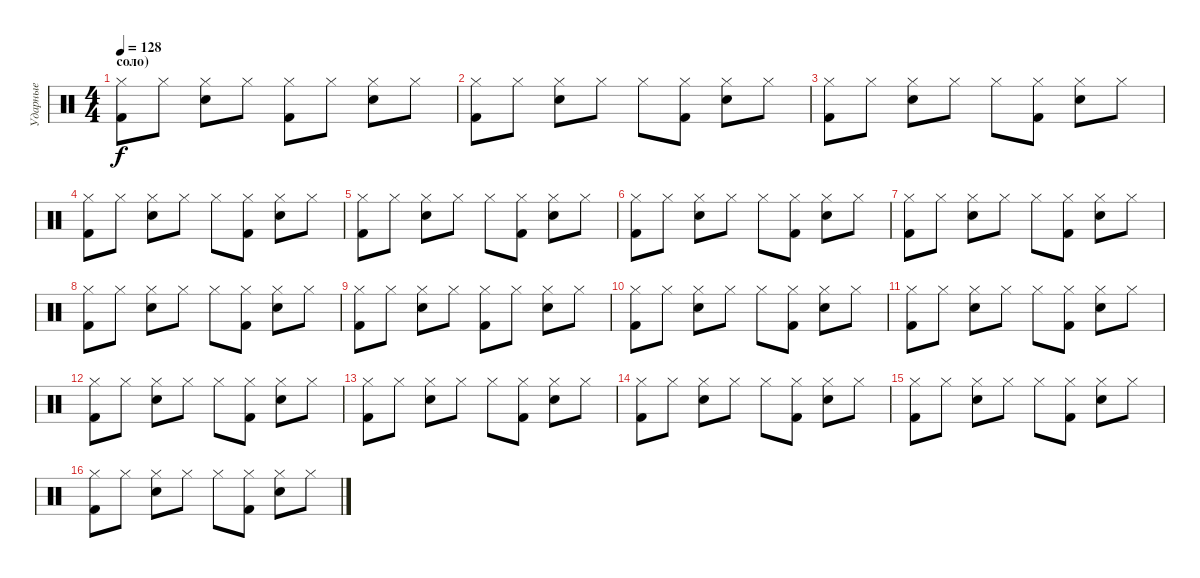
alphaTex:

\track ("Ударные" "Ударные") {instrument percussion}
\staff {score}
\articulation defaults
\ts (4 4)
\section ("" "соло)")
\tempo 128
\clef neutral
\ks c
("Hi-Hat (closed)" "Kick (hit) 2").8{dy f} "Hi-Hat (closed)".8 ("Hi-Hat (closed)" "Snare (hit) 2").8 "Hi-Hat (closed)".8 ("Hi-Hat (closed)" "Kick (hit) 2").8 "Hi-Hat (closed)".8 ("Hi-Hat (closed)" "Snare (hit) 2").8 "Hi-Hat (closed)".8 |
("Hi-Hat (closed)" "Kick (hit) 2").8 "Hi-Hat (closed)".8 ("Hi-Hat (closed)" "Snare (hit) 2").8 "Hi-Hat (closed)".8 "Hi-Hat (closed)".8 ("Hi-Hat (closed)" "Kick (hit) 2").8 ("Hi-Hat (closed)" "Snare (hit) 2").8 "Hi-Hat (closed)".8 |
("Hi-Hat (closed)" "Kick (hit) 2").8 "Hi-Hat (closed)".8 ("Hi-Hat (closed)" "Snare (hit) 2").8 "Hi-Hat (closed)".8 "Hi-Hat (closed)".8 ("Hi-Hat (closed)" "Kick (hit) 2").8 ("Hi-Hat (closed)" "Snare (hit) 2").8 "Hi-Hat (closed)".8 |
("Hi-Hat (closed)" "Kick (hit) 2").8 "Hi-Hat (closed)".8 ("Hi-Hat (closed)" "Snare (hit) 2").8 "Hi-Hat (closed)".8 "Hi-Hat (closed)".8 ("Hi-Hat (closed)" "Kick (hit) 2").8 ("Hi-Hat (closed)" "Snare (hit) 2").8 "Hi-Hat (closed)".8 |
("Hi-Hat (closed)" "Kick (hit) 2").8 "Hi-Hat (closed)".8 ("Hi-Hat (closed)" "Snare (hit) 2").8 "Hi-Hat (closed)".8 "Hi-Hat (closed)".8 ("Hi-Hat (closed)" "Kick (hit) 2").8 ("Hi-Hat (closed)" "Snare (hit) 2").8 "Hi-Hat (closed)".8 |
("Hi-Hat (closed)" "Kick (hit) 2").8 "Hi-Hat (closed)".8 ("Hi-Hat (closed)" "Snare (hit) 2").8 "Hi-Hat (closed)".8 "Hi-Hat (closed)".8 ("Hi-Hat (closed)" "Kick (hit) 2").8 ("Hi-Hat (closed)" "Snare (hit) 2").8 "Hi-Hat (closed)".8 |
("Hi-Hat (closed)" "Kick (hit) 2").8 "Hi-Hat (closed)".8 ("Hi-Hat (closed)" "Snare (hit) 2").8 "Hi-Hat (closed)".8 "Hi-Hat (closed)".8 ("Hi-Hat (closed)" "Kick (hit) 2").8 ("Hi-Hat (closed)" "Snare (hit) 2").8 "Hi-Hat (closed)".8 |
("Hi-Hat (closed)" "Kick (hit) 2").8 "Hi-Hat (closed)".8 ("Hi-Hat (closed)" "Snare (hit) 2").8 "Hi-Hat (closed)".8 "Hi-Hat (closed)".8 ("Hi-Hat (closed)" "Kick (hit) 2").8 ("Hi-Hat (closed)" "Snare (hit) 2").8 "Hi-Hat (closed)".8 |
("Hi-Hat (closed)" "Kick (hit) 2").8 "Hi-Hat (closed)".8 ("Hi-Hat (closed)" "Snare (hit) 2").8 "Hi-Hat (closed)".8 ("Hi-Hat (closed)" "Kick (hit) 2").8 "Hi-Hat (closed)".8 ("Hi-Hat (closed)" "Snare (hit) 2").8 "Hi-Hat (closed)".8 |
("Hi-Hat (closed)" "Kick (hit) 2").8 "Hi-Hat (closed)".8 ("Hi-Hat (closed)" "Snare (hit) 2").8 "Hi-Hat (closed)".8 "Hi-Hat (closed)".8 ("Hi-Hat (closed)" "Kick (hit) 2").8 ("Hi-Hat (closed)" "Snare (hit) 2").8 "Hi-Hat (closed)".8 |
("Hi-Hat (closed)" "Kick (hit) 2").8 "Hi-Hat (closed)".8 ("Hi-Hat (closed)" "Snare (hit) 2").8 "Hi-Hat (closed)".8 "Hi-Hat (closed)".8 ("Hi-Hat (closed)" "Kick (hit) 2").8 ("Hi-Hat (closed)" "Snare (hit) 2").8 "Hi-Hat (closed)".8 |
("Hi-Hat (closed)" "Kick (hit) 2").8 "Hi-Hat (closed)".8 ("Hi-Hat (closed)" "Snare (hit) 2").8 "Hi-Hat (closed)".8 "Hi-Hat (closed)".8 ("Hi-Hat (closed)" "Kick (hit) 2").8 ("Hi-Hat (closed)" "Snare (hit) 2").8 "Hi-Hat (closed)".8 |
("Hi-Hat (closed)" "Kick (hit) 2").8 "Hi-Hat (closed)".8 ("Hi-Hat (closed)" "Snare (hit) 2").8 "Hi-Hat (closed)".8 "Hi-Hat (closed)".8 ("Hi-Hat (closed)" "Kick (hit) 2").8 ("Hi-Hat (closed)" "Snare (hit) 2").8 "Hi-Hat (closed)".8 |
("Hi-Hat (closed)" "Kick (hit) 2").8 "Hi-Hat (closed)".8 ("Hi-Hat (closed)" "Snare (hit) 2").8 "Hi-Hat (closed)".8 "Hi-Hat (closed)".8 ("Hi-Hat (closed)" "Kick (hit) 2").8 ("Hi-Hat (closed)" "Snare (hit) 2").8 "Hi-Hat (closed)".8 |
("Hi-Hat (closed)" "Kick (hit) 2").8 "Hi-Hat (closed)".8 ("Hi-Hat (closed)" "Snare (hit) 2").8 "Hi-Hat (closed)".8 "Hi-Hat (closed)".8 ("Hi-Hat (closed)" "Kick (hit) 2").8 ("Hi-Hat (closed)" "Snare (hit) 2").8 "Hi-Hat (closed)".8 |
("Hi-Hat (closed)" "Kick (hit) 2").8 "Hi-Hat (closed)".8 ("Hi-Hat (closed)" "Snare (hit) 2").8 "Hi-Hat (closed)".8 "Hi-Hat (closed)".8 ("Hi-Hat (closed)" "Kick (hit) 2").8 ("Hi-Hat (closed)" "Snare (hit) 2").8 "Hi-Hat (closed)".8
